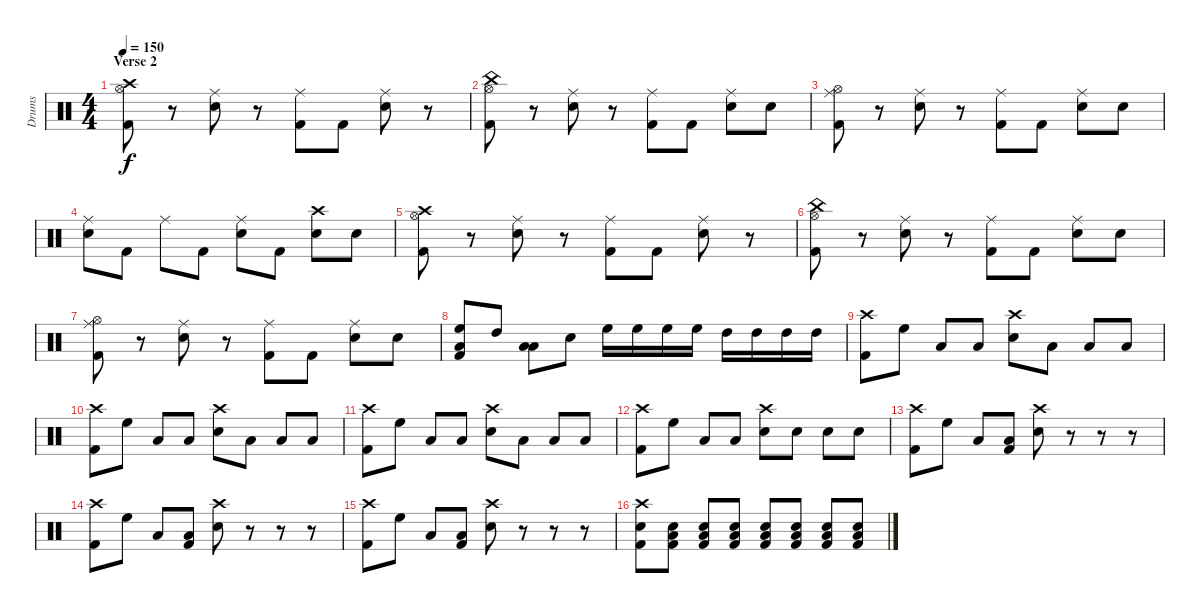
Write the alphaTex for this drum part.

\track ("Drums" "Drums") {instrument percussion}
\staff {score}
\articulation defaults
\ts (4 4)
\section ("" "Verse 2")
\tempo 150
\clef neutral
\ks c
("Crash high (hit)" "Hi-Hat (open)" "Kick (hit) 2").8{dy f} r.8 ("Ride (middle)" "Snare (hit) 2").8 r.8 ("Ride (middle)" "Kick (hit) 2").8 "Kick (hit) 2".8 ("Ride (middle)" "Snare (hit) 2").8 r.8 |
("China (hit)" "Hi-Hat (open)" "Kick (hit) 2").8 r.8 ("Ride (middle)" "Snare (hit) 2").8 r.8 ("Ride (middle)" "Kick (hit) 2").8 "Kick (hit) 2".8 ("Ride (middle)" "Snare (hit) 2").8 "Snare (hit) 2".8 |
("Ride (middle)" "Hi-Hat (open)" "Kick (hit) 2").8 r.8 ("Ride (middle)" "Snare (hit) 2").8 r.8 ("Ride (middle)" "Kick (hit) 2").8 "Kick (hit) 2".8 ("Ride (middle)" "Snare (hit) 2").8 "Snare (hit) 2".8 |
("Ride (middle)" "Snare (hit) 2").8 "Kick (hit) 2".8 "Ride (middle)".8 "Kick (hit) 2".8 ("Ride (middle)" "Snare (hit) 2").8 "Kick (hit) 2".8 ("Crash high (hit)" "Snare (hit) 2").8 "Snare (hit) 2".8 |
("Crash high (hit)" "Hi-Hat (open)" "Kick (hit) 2").8 r.8 ("Ride (middle)" "Snare (hit) 2").8 r.8 ("Ride (middle)" "Kick (hit) 2").8 "Kick (hit) 2".8 ("Ride (middle)" "Snare (hit) 2").8 r.8 |
("China (hit)" "Hi-Hat (open)" "Kick (hit) 2").8 r.8 ("Ride (middle)" "Snare (hit) 2").8 r.8 ("Ride (middle)" "Kick (hit) 2").8 "Kick (hit) 2".8 ("Ride (middle)" "Snare (hit) 2").8 "Snare (hit) 2".8 |
("Ride (middle)" "Hi-Hat (open)" "Kick (hit) 2").8 r.8 ("Ride (middle)" "Snare (hit) 2").8 r.8 ("Ride (middle)" "Kick (hit) 2").8 "Kick (hit) 2".8 ("Ride (middle)" "Snare (hit) 2").8 "Snare (hit) 2".8 |
("High Floor Tom (hit)" "Low Floor Tom (hit)" "Kick (hit) 2").8 "High Tom (hit)".8 ("Low Tom (hit)" "Low Floor Tom (hit)").8 "Snare (hit) 2".8 "High Floor Tom (hit)".16 "High Floor Tom (hit)".16 "High Floor Tom (hit)".16 "High Floor Tom (hit)".16 "High Tom (hit)".16 "High Tom (hit)".16 "High Tom (hit)".16 "High Tom (hit)".16 |
("Crash high (hit)" "Kick (hit) 2").8 "High Floor Tom (hit)".8 "Low Floor Tom (hit)".8 "Low Tom (hit)".8 ("Crash high (hit)" "Snare (hit) 2").8 "Low Floor Tom (hit)".8 "Low Floor Tom (hit)".8 "Low Floor Tom (hit)".8 |
("Crash high (hit)" "Kick (hit) 2").8 "High Floor Tom (hit)".8 "Low Floor Tom (hit)".8 "Low Tom (hit)".8 ("Crash high (hit)" "Snare (hit) 2").8 "Low Floor Tom (hit)".8 "Low Floor Tom (hit)".8 "Low Floor Tom (hit)".8 |
("Crash high (hit)" "Kick (hit) 2").8 "High Floor Tom (hit)".8 "Low Floor Tom (hit)".8 "Low Tom (hit)".8 ("Crash high (hit)" "Snare (hit) 2").8 "Low Floor Tom (hit)".8 "Low Floor Tom (hit)".8 "Low Floor Tom (hit)".8 |
("Crash high (hit)" "Kick (hit) 2").8 "High Floor Tom (hit)".8 "Low Floor Tom (hit)".8 "Low Tom (hit)".8 ("Crash high (hit)" "Snare (hit) 2").8 "Snare (hit) 2".8 "Snare (hit) 2".8 "Snare (hit) 2".8 |
("Crash high (hit)" "Kick (hit) 2").8 "High Floor Tom (hit)".8 "Low Floor Tom (hit)".8 ("Low Tom (hit)" "Kick (hit) 2").8 ("Crash high (hit)" "Snare (hit) 2").8 r.8 r.8 r.8 |
("Crash high (hit)" "Kick (hit) 2").8 "High Floor Tom (hit)".8 "Low Floor Tom (hit)".8 ("Low Tom (hit)" "Kick (hit) 2").8 ("Crash high (hit)" "Snare (hit) 2").8 r.8 r.8 r.8 |
("Crash high (hit)" "Kick (hit) 2").8 "High Floor Tom (hit)".8 "Low Floor Tom (hit)".8 ("Low Tom (hit)" "Kick (hit) 2").8 ("Crash high (hit)" "Snare (hit) 2").8 r.8 r.8 r.8 |
("Crash high (hit)" "Snare (hit) 2" "Kick (hit) 2").8 ("Low Floor Tom (hit)" "Snare (hit) 2" "Kick (hit) 2").8 ("Low Floor Tom (hit)" "Snare (hit) 2" "Kick (hit) 2").8 ("Low Floor Tom (hit)" "Snare (hit) 2" "Kick (hit) 2").8 ("Low Floor Tom (hit)" "Snare (hit) 2" "Kick (hit) 2").8 ("Low Floor Tom (hit)" "Snare (hit) 2" "Kick (hit) 2").8 ("Low Floor Tom (hit)" "Snare (hit) 2" "Kick (hit) 2").8 ("Low Floor Tom (hit)" "Snare (hit) 2" "Kick (hit) 2").8
